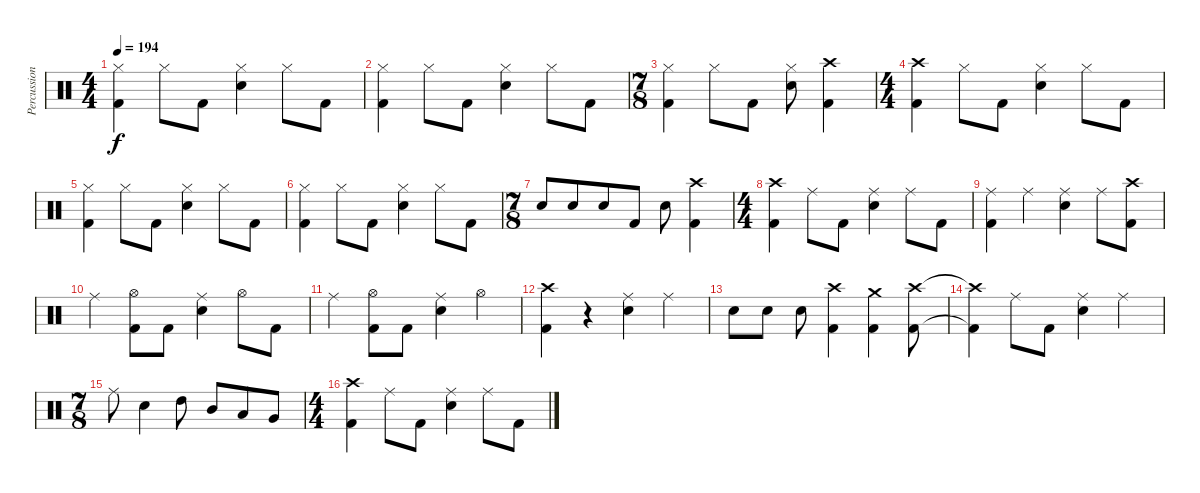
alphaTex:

\track ("Percussions" "Percussion") {instrument percussion}
\staff {score}
\articulation defaults
\ts (4 4)
\tempo 194
\clef neutral
\ks c
("Hi-Hat (closed)" "Kick (hit) 2").4{dy f} "Hi-Hat (closed)".8 "Kick (hit) 2".8 ("Hi-Hat (closed)" "Electric Snare (hit)").4 "Hi-Hat (closed)".8 "Kick (hit) 2".8 |
("Hi-Hat (closed)" "Kick (hit) 2").4 "Hi-Hat (closed)".8 "Kick (hit) 2".8 ("Hi-Hat (closed)" "Electric Snare (hit)").4 "Hi-Hat (closed)".8 "Kick (hit) 2".8 |
\ts (7 8)
("Hi-Hat (closed)" "Kick (hit) 2").4 "Hi-Hat (closed)".8 "Kick (hit) 2".8 ("Hi-Hat (closed)" "Electric Snare (hit)").8 ("Crash high (hit)" "Kick (hit) 2").4 |
\ts (4 4)
("Crash high (hit)" "Kick (hit) 2").4 "Hi-Hat (closed)".8 "Kick (hit) 2".8 ("Hi-Hat (closed)" "Electric Snare (hit)").4 "Hi-Hat (closed)".8 "Kick (hit) 2".8 |
("Hi-Hat (closed)" "Kick (hit) 2").4 "Hi-Hat (closed)".8 "Kick (hit) 2".8 ("Hi-Hat (closed)" "Electric Snare (hit)").4 "Hi-Hat (closed)".8 "Kick (hit) 2".8 |
("Hi-Hat (closed)" "Kick (hit) 2").4 "Hi-Hat (closed)".8 "Kick (hit) 2".8 ("Hi-Hat (closed)" "Electric Snare (hit)").4 "Hi-Hat (closed)".8 "Kick (hit) 2".8 |
\ts (7 8)
"Electric Snare (hit)".8 "Electric Snare (hit)".8 "Electric Snare (hit)".8 "Kick (hit) 2".8 "Electric Snare (hit)".8 ("Crash high (hit)" "Kick (hit) 2").4 |
\ts (4 4)
("Crash high (hit)" "Kick (hit) 2").4 "Ride (middle)".8 "Kick (hit) 2".8 ("Ride (middle)" "Electric Snare (hit)").4 "Ride (middle)".8 "Kick (hit) 2".8 |
("Ride (middle)" "Kick (hit) 2").4 "Ride (middle)".4 ("Ride (middle)" "Electric Snare (hit)").4 "Ride (middle)".8 ("Crash high (hit)" "Kick (hit) 2").8 |
"Ride (middle)".4 ("Hi-Hat (open)" "Kick (hit) 2").8 "Kick (hit) 2".8 ("Ride (middle)" "Electric Snare (hit)").4 "Hi-Hat (open)".8 "Kick (hit) 2".8 |
"Ride (middle)".4 ("Hi-Hat (open)" "Kick (hit) 2").8 "Kick (hit) 2".8 ("Ride (middle)" "Electric Snare (hit)").4 "Hi-Hat (open)".4 |
("Crash high (hit)" "Kick (hit) 2").4 r.4 ("Ride (middle)" "Electric Snare (hit)").4 "Ride (middle)".4 |
"Electric Snare (hit)".8 "Electric Snare (hit)".8 "Electric Snare (hit)".8 ("Crash high (hit)" "Kick (hit) 2").4 ("Crash medium (hit)" "Kick (hit) 2").4 ("Crash high (hit)" "Kick (hit) 2").8 |
("Crash high (hit)"{t} "Kick (hit) 2"{t}).4 "Ride (middle)".8 "Kick (hit) 2".8 ("Ride (middle)" "Electric Snare (hit)").4 "Ride (middle)".4 |
\ts (7 8)
"Ride (middle)".8 "Electric Snare (hit)".4 "High Tom (hit)".8 "Mid Tom (hit)".8 "Low Tom (hit)".8 "Very Low Tom (hit)".8 |
\ts (4 4)
("Crash high (hit)" "Kick (hit) 2").4 "Ride (middle)".8 "Kick (hit) 2".8 ("Ride (middle)" "Electric Snare (hit)").4 "Ride (middle)".8 "Kick (hit) 2".8
